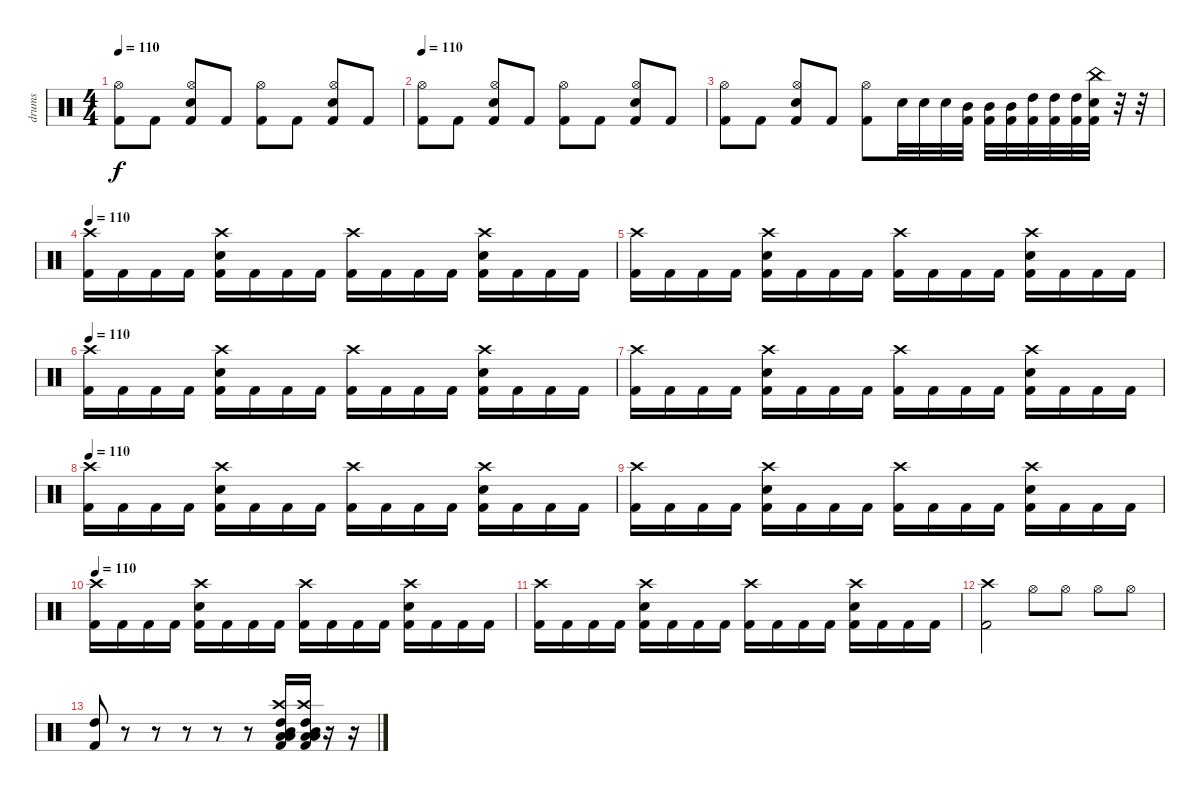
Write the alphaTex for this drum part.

\track ("drums" "drums") {instrument percussion}
\staff {score}
\articulation defaults
\ts (4 4)
\tempo 110
\clef neutral
\ks c
("Kick (hit) 2" "Hi-Hat (open)").8{dy f} "Kick (hit) 2".8 ("Kick (hit) 2" "Electric Snare (hit)" "Hi-Hat (open)").8 "Kick (hit) 2".8 ("Kick (hit) 2" "Hi-Hat (open)").8 "Kick (hit) 2".8 ("Kick (hit) 2" "Electric Snare (hit)" "Hi-Hat (open)").8 "Kick (hit) 2".8 |
\tempo 110
("Kick (hit) 2" "Hi-Hat (open)").8 "Kick (hit) 2".8 ("Kick (hit) 2" "Electric Snare (hit)" "Hi-Hat (open)").8 "Kick (hit) 2".8 ("Kick (hit) 2" "Hi-Hat (open)").8 "Kick (hit) 2".8 ("Kick (hit) 2" "Electric Snare (hit)" "Hi-Hat (open)").8 "Kick (hit) 2".8 |
("Kick (hit) 2" "Hi-Hat (open)").8 "Kick (hit) 2".8 ("Kick (hit) 2" "Electric Snare (hit)" "Hi-Hat (open)").8 "Kick (hit) 2".8 ("Kick (hit) 2" "Hi-Hat (open)").8 "Electric Snare (hit)".32 "Electric Snare (hit)".32 "Electric Snare (hit)".32 ("Kick (hit) 2" "Mid Tom (hit)").32 ("Kick (hit) 2" "Mid Tom (hit)").32 ("Kick (hit) 2" "Mid Tom (hit)").32 ("Kick (hit) 2" "High Tom (hit)").32 ("Kick (hit) 2" "High Tom (hit)").32 ("Kick (hit) 2" "High Tom (hit)").32 ("Kick (hit) 2" "Electric Snare (hit)" "China (hit)").32 r.32 r.32 |
\tempo 110
("Kick (hit) 2" "Crash high (hit)").16 "Kick (hit) 2".16 "Kick (hit) 2".16 "Kick (hit) 2".16 ("Kick (hit) 2" "Electric Snare (hit)" "Crash high (hit)").16 "Kick (hit) 2".16 "Kick (hit) 2".16 "Kick (hit) 2".16 ("Kick (hit) 2" "Crash high (hit)").16 "Kick (hit) 2".16 "Kick (hit) 2".16 "Kick (hit) 2".16 ("Kick (hit) 2" "Electric Snare (hit)" "Crash high (hit)").16 "Kick (hit) 2".16 "Kick (hit) 2".16 "Kick (hit) 2".16 |
("Kick (hit) 2" "Crash high (hit)").16 "Kick (hit) 2".16 "Kick (hit) 2".16 "Kick (hit) 2".16 ("Kick (hit) 2" "Electric Snare (hit)" "Crash high (hit)").16 "Kick (hit) 2".16 "Kick (hit) 2".16 "Kick (hit) 2".16 ("Kick (hit) 2" "Crash high (hit)").16 "Kick (hit) 2".16 "Kick (hit) 2".16 "Kick (hit) 2".16 ("Kick (hit) 2" "Electric Snare (hit)" "Crash high (hit)").16 "Kick (hit) 2".16 "Kick (hit) 2".16 "Kick (hit) 2".16 |
\tempo 110
("Kick (hit) 2" "Crash high (hit)").16 "Kick (hit) 2".16 "Kick (hit) 2".16 "Kick (hit) 2".16 ("Kick (hit) 2" "Electric Snare (hit)" "Crash high (hit)").16 "Kick (hit) 2".16 "Kick (hit) 2".16 "Kick (hit) 2".16 ("Kick (hit) 2" "Crash high (hit)").16 "Kick (hit) 2".16 "Kick (hit) 2".16 "Kick (hit) 2".16 ("Kick (hit) 2" "Electric Snare (hit)" "Crash high (hit)").16 "Kick (hit) 2".16 "Kick (hit) 2".16 "Kick (hit) 2".16 |
("Kick (hit) 2" "Crash high (hit)").16 "Kick (hit) 2".16 "Kick (hit) 2".16 "Kick (hit) 2".16 ("Kick (hit) 2" "Electric Snare (hit)" "Crash high (hit)").16 "Kick (hit) 2".16 "Kick (hit) 2".16 "Kick (hit) 2".16 ("Kick (hit) 2" "Crash high (hit)").16 "Kick (hit) 2".16 "Kick (hit) 2".16 "Kick (hit) 2".16 ("Kick (hit) 2" "Electric Snare (hit)" "Crash high (hit)").16 "Kick (hit) 2".16 "Kick (hit) 2".16 "Kick (hit) 2".16 |
\tempo 110
("Kick (hit) 2" "Crash high (hit)").16 "Kick (hit) 2".16 "Kick (hit) 2".16 "Kick (hit) 2".16 ("Kick (hit) 2" "Electric Snare (hit)" "Crash high (hit)").16 "Kick (hit) 2".16 "Kick (hit) 2".16 "Kick (hit) 2".16 ("Kick (hit) 2" "Crash high (hit)").16 "Kick (hit) 2".16 "Kick (hit) 2".16 "Kick (hit) 2".16 ("Kick (hit) 2" "Electric Snare (hit)" "Crash high (hit)").16 "Kick (hit) 2".16 "Kick (hit) 2".16 "Kick (hit) 2".16 |
("Kick (hit) 2" "Crash high (hit)").16 "Kick (hit) 2".16 "Kick (hit) 2".16 "Kick (hit) 2".16 ("Kick (hit) 2" "Electric Snare (hit)" "Crash high (hit)").16 "Kick (hit) 2".16 "Kick (hit) 2".16 "Kick (hit) 2".16 ("Kick (hit) 2" "Crash high (hit)").16 "Kick (hit) 2".16 "Kick (hit) 2".16 "Kick (hit) 2".16 ("Kick (hit) 2" "Electric Snare (hit)" "Crash high (hit)").16 "Kick (hit) 2".16 "Kick (hit) 2".16 "Kick (hit) 2".16 |
\tempo 110
("Kick (hit) 2" "Crash high (hit)").16 "Kick (hit) 2".16 "Kick (hit) 2".16 "Kick (hit) 2".16 ("Kick (hit) 2" "Electric Snare (hit)" "Crash high (hit)").16 "Kick (hit) 2".16 "Kick (hit) 2".16 "Kick (hit) 2".16 ("Kick (hit) 2" "Crash high (hit)").16 "Kick (hit) 2".16 "Kick (hit) 2".16 "Kick (hit) 2".16 ("Kick (hit) 2" "Electric Snare (hit)" "Crash high (hit)").16 "Kick (hit) 2".16 "Kick (hit) 2".16 "Kick (hit) 2".16 |
("Kick (hit) 2" "Crash high (hit)").16 "Kick (hit) 2".16 "Kick (hit) 2".16 "Kick (hit) 2".16 ("Kick (hit) 2" "Electric Snare (hit)" "Crash high (hit)").16 "Kick (hit) 2".16 "Kick (hit) 2".16 "Kick (hit) 2".16 ("Kick (hit) 2" "Crash high (hit)").16 "Kick (hit) 2".16 "Kick (hit) 2".16 "Kick (hit) 2".16 ("Kick (hit) 2" "Electric Snare (hit)" "Crash high (hit)").16 "Kick (hit) 2".16 "Kick (hit) 2".16 "Kick (hit) 2".16 |
("Kick (hit) 2" "Crash high (hit)").2 "Hi-Hat (open)".8 "Hi-Hat (open)".8 "Hi-Hat (open)".8 "Hi-Hat (open)".8 |
("Kick (hit) 2" "High Tom (hit)").8 r.8 r.8 r.8 r.8 r.8 ("Kick (hit) 2" "Mid Tom (hit)" "Crash high (hit)" "High Tom (hit)" "Low Floor Tom (hit)" "Low Tom (hit)").16 ("Kick (hit) 2" "Mid Tom (hit)" "Crash high (hit)" "High Tom (hit)" "Low Floor Tom (hit)" "Low Tom (hit)").16 r.16 r.16
